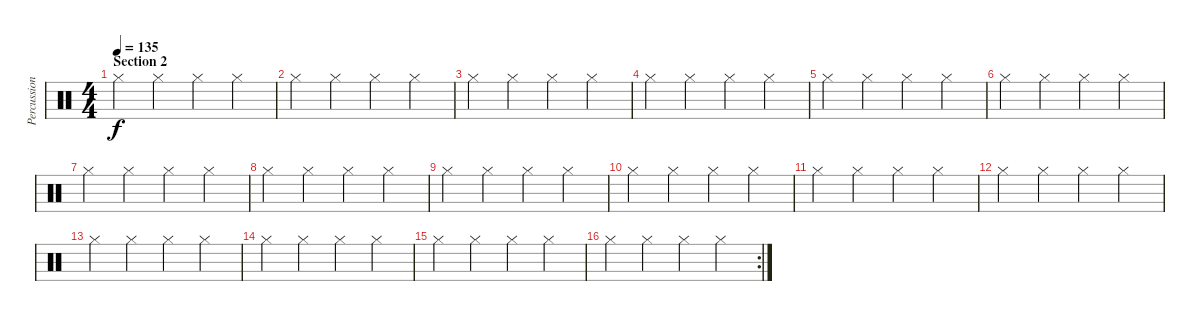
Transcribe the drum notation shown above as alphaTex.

\track ("Percussion" "Percussion") {instrument percussion}
\staff {score}
\articulation defaults
\ts (4 4)
\section ("" "Section 2")
\tempo 135
\clef neutral
\ks c "Hi-Hat (closed)".4{dy f} "Hi-Hat (closed)".4 "Hi-Hat (closed)".4 "Hi-Hat (closed)".4
|
"Hi-Hat (closed)".4 "Hi-Hat (closed)".4 "Hi-Hat (closed)".4 "Hi-Hat (closed)".4 |
"Hi-Hat (closed)".4 "Hi-Hat (closed)".4 "Hi-Hat (closed)".4 "Hi-Hat (closed)".4 |
"Hi-Hat (closed)".4 "Hi-Hat (closed)".4 "Hi-Hat (closed)".4 "Hi-Hat (closed)".4 |
"Hi-Hat (closed)".4 "Hi-Hat (closed)".4 "Hi-Hat (closed)".4 "Hi-Hat (closed)".4 |
"Hi-Hat (closed)".4 "Hi-Hat (closed)".4 "Hi-Hat (closed)".4 "Hi-Hat (closed)".4 |
"Hi-Hat (closed)".4 "Hi-Hat (closed)".4 "Hi-Hat (closed)".4 "Hi-Hat (closed)".4 |
"Hi-Hat (closed)".4 "Hi-Hat (closed)".4 "Hi-Hat (closed)".4 "Hi-Hat (closed)".4 |
"Hi-Hat (closed)".4 "Hi-Hat (closed)".4 "Hi-Hat (closed)".4 "Hi-Hat (closed)".4 |
"Hi-Hat (closed)".4 "Hi-Hat (closed)".4 "Hi-Hat (closed)".4 "Hi-Hat (closed)".4 |
"Hi-Hat (closed)".4 "Hi-Hat (closed)".4 "Hi-Hat (closed)".4 "Hi-Hat (closed)".4 |
"Hi-Hat (closed)".4 "Hi-Hat (closed)".4 "Hi-Hat (closed)".4 "Hi-Hat (closed)".4 |
"Hi-Hat (closed)".4 "Hi-Hat (closed)".4 "Hi-Hat (closed)".4 "Hi-Hat (closed)".4 |
"Hi-Hat (closed)".4 "Hi-Hat (closed)".4 "Hi-Hat (closed)".4 "Hi-Hat (closed)".4 |
"Hi-Hat (closed)".4 "Hi-Hat (closed)".4 "Hi-Hat (closed)".4 "Hi-Hat (closed)".4 |
\rc 2 "Hi-Hat (closed)".4 "Hi-Hat (closed)".4 "Hi-Hat (closed)".4 "Hi-Hat (closed)".4
